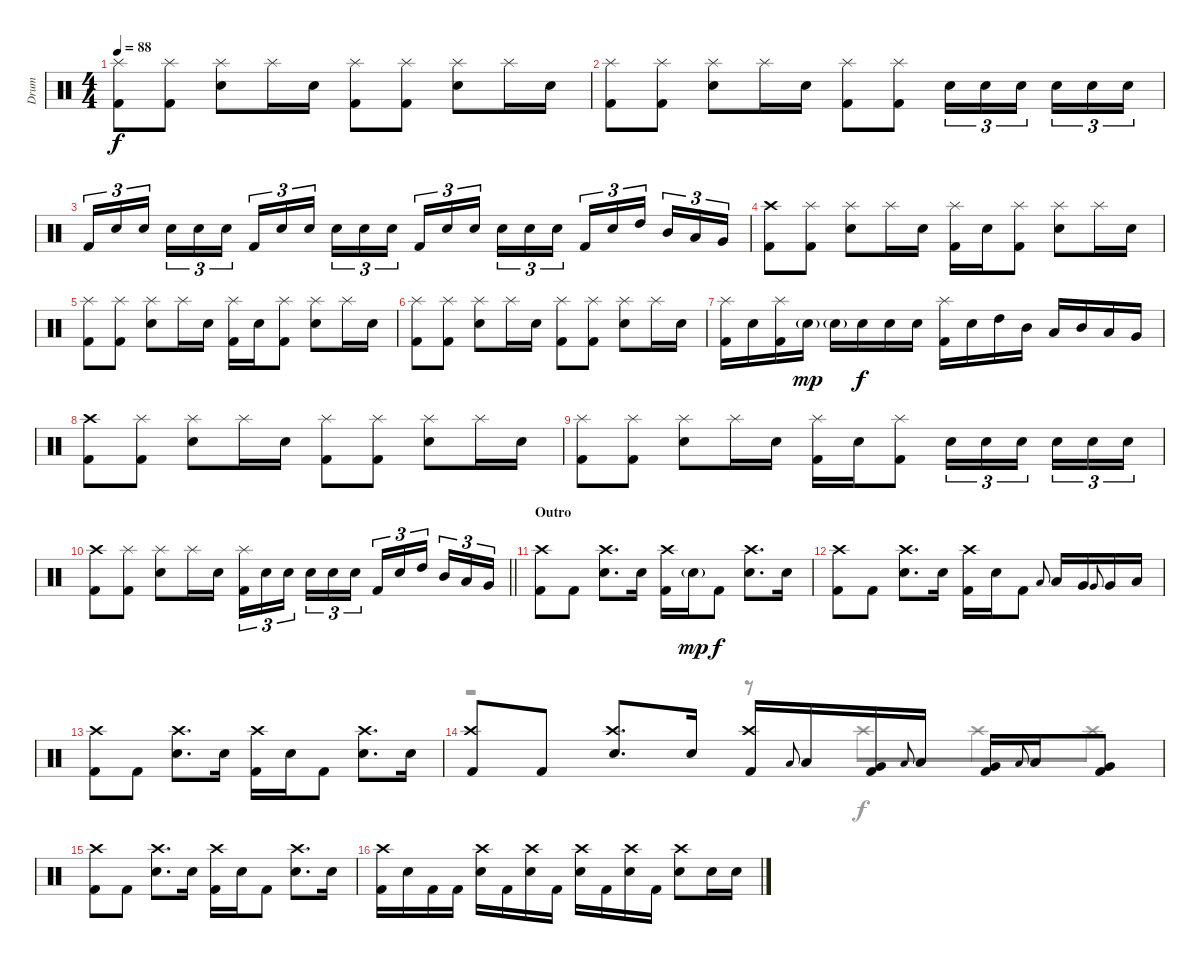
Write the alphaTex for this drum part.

\track ("Drum" "Drum") {instrument percussion}
\staff {score}
\articulation defaults
\voice
\ts (4 4)
\tempo 88
\clef neutral
\ks c
("Splash (hit)" "Kick (hit) 2").8{dy f} ("Splash (hit)" "Kick (hit) 2").8 ("Splash (hit)" "Electric Snare (hit)").8 "Splash (hit)".16 "Electric Snare (hit)".16 ("Splash (hit)" "Kick (hit) 2").8 ("Splash (hit)" "Kick (hit) 2").8 ("Splash (hit)" "Electric Snare (hit)").8 "Splash (hit)".16 "Electric Snare (hit)".16 |
("Splash (hit)" "Kick (hit) 2").8 ("Splash (hit)" "Kick (hit) 2").8 ("Splash (hit)" "Electric Snare (hit)").8 "Splash (hit)".16 "Electric Snare (hit)".16 ("Splash (hit)" "Kick (hit) 2").8 ("Splash (hit)" "Kick (hit) 2").8 "Electric Snare (hit)".16{tu (3 2)} "Electric Snare (hit)".16{tu (3 2)} "Electric Snare (hit)".16{tu (3 2) beam splitsecondary} "Electric Snare (hit)".16{tu (3 2)} "Electric Snare (hit)".16{tu (3 2)} "Electric Snare (hit)".16{tu (3 2)} |
"Kick (hit) 2".16{tu (3 2)} "Electric Snare (hit)".16{tu (3 2)} "Electric Snare (hit)".16{tu (3 2) beam splitsecondary} "Electric Snare (hit)".16{tu (3 2)} "Electric Snare (hit)".16{tu (3 2)} "Electric Snare (hit)".16{tu (3 2)} "Kick (hit) 2".16{tu (3 2)} "Electric Snare (hit)".16{tu (3 2)} "Electric Snare (hit)".16{tu (3 2) beam splitsecondary} "Electric Snare (hit)".16{tu (3 2)} "Electric Snare (hit)".16{tu (3 2)} "Electric Snare (hit)".16{tu (3 2)} "Kick (hit) 2".16{tu (3 2)} "Electric Snare (hit)".16{tu (3 2)} "Electric Snare (hit)".16{tu (3 2) beam splitsecondary} "Electric Snare (hit)".16{tu (3 2)} "Electric Snare (hit)".16{tu (3 2)} "Electric Snare (hit)".16{tu (3 2)} "Kick (hit) 2".16{tu (3 2)} "Electric Snare (hit)".16{tu (3 2)} "High Tom (hit)".16{tu (3 2) beam splitsecondary} "Mid Tom (hit)".16{tu (3 2)} "Low Tom (hit)".16{tu (3 2)} "Very Low Tom (hit)".16{tu (3 2)} |
("Crash high (hit)" "Kick (hit) 2").8 ("Splash (hit)" "Kick (hit) 2").8 ("Splash (hit)" "Electric Snare (hit)").8 "Splash (hit)".16 "Electric Snare (hit)".16 ("Splash (hit)" "Kick (hit) 2").16 "Electric Snare (hit)".16 ("Splash (hit)" "Kick (hit) 2").8 ("Splash (hit)" "Electric Snare (hit)").8 "Splash (hit)".16 "Electric Snare (hit)".16 |
("Splash (hit)" "Kick (hit) 2").8 ("Splash (hit)" "Kick (hit) 2").8 ("Splash (hit)" "Electric Snare (hit)").8 "Splash (hit)".16 "Electric Snare (hit)".16 ("Splash (hit)" "Kick (hit) 2").16 "Electric Snare (hit)".16 ("Splash (hit)" "Kick (hit) 2").8 ("Splash (hit)" "Electric Snare (hit)").8 "Splash (hit)".16 "Electric Snare (hit)".16 |
("Splash (hit)" "Kick (hit) 2").8 ("Splash (hit)" "Kick (hit) 2").8 ("Splash (hit)" "Electric Snare (hit)").8 "Splash (hit)".16 "Electric Snare (hit)".16 ("Splash (hit)" "Kick (hit) 2").8 ("Splash (hit)" "Kick (hit) 2").8 ("Splash (hit)" "Electric Snare (hit)").8 "Splash (hit)".16 "Electric Snare (hit)".16 |
("Splash (hit)" "Kick (hit) 2").16 "Electric Snare (hit)".16 ("Splash (hit)" "Kick (hit) 2").16 "Electric Snare (hit)"{g}.16{dy mp} "Electric Snare (hit)"{g}.16 "Electric Snare (hit)".16{dy f} "Electric Snare (hit)".16 "Electric Snare (hit)".16 ("Splash (hit)" "Kick (hit) 2").16 "Electric Snare (hit)".16 "High Tom (hit)".16 "Mid Tom (hit)".16 "Low Tom (hit)".16 "Mid Tom (hit)".16 "Low Tom (hit)".16 "Very Low Tom (hit)".16 |
("Crash high (hit)" "Kick (hit) 2").8 ("Splash (hit)" "Kick (hit) 2").8 ("Splash (hit)" "Electric Snare (hit)").8 "Splash (hit)".16 "Electric Snare (hit)".16 ("Splash (hit)" "Kick (hit) 2").8 ("Splash (hit)" "Kick (hit) 2").8 ("Splash (hit)" "Electric Snare (hit)").8 "Splash (hit)".16 "Electric Snare (hit)".16 |
("Splash (hit)" "Kick (hit) 2").8 ("Splash (hit)" "Kick (hit) 2").8 ("Splash (hit)" "Electric Snare (hit)").8 "Splash (hit)".16 "Electric Snare (hit)".16 ("Splash (hit)" "Kick (hit) 2").16 "Electric Snare (hit)".16 ("Splash (hit)" "Kick (hit) 2").8 "Electric Snare (hit)".16{tu (3 2)} "Electric Snare (hit)".16{tu (3 2)} "Electric Snare (hit)".16{tu (3 2) beam splitsecondary} "Electric Snare (hit)".16{tu (3 2)} "Electric Snare (hit)".16{tu (3 2)} "Electric Snare (hit)".16{tu (3 2)} |
\barLineRight lightlight
("Crash high (hit)" "Kick (hit) 2").8 ("Splash (hit)" "Kick (hit) 2").8 ("Splash (hit)" "Electric Snare (hit)").8 "Splash (hit)".16 "Electric Snare (hit)".16 ("Splash (hit)" "Kick (hit) 2").16{tu (3 2)} "Electric Snare (hit)".16{tu (3 2)} "Electric Snare (hit)".16{tu (3 2) beam splitsecondary} "Electric Snare (hit)".16{tu (3 2)} "Electric Snare (hit)".16{tu (3 2)} "Electric Snare (hit)".16{tu (3 2)} "Kick (hit) 2".16{tu (3 2)} "Electric Snare (hit)".16{tu (3 2)} "High Tom (hit)".16{tu (3 2) beam splitsecondary} "Mid Tom (hit)".16{tu (3 2)} "Low Tom (hit)".16{tu (3 2)} "Very Low Tom (hit)".16{tu (3 2)} |
\section ("" "Outro")
("Crash high (hit)" "Kick (hit) 2").8 "Kick (hit) 2".8 ("Crash high (hit)" "Electric Snare (hit)").8{d} "Electric Snare (hit)".16 ("Crash high (hit)" "Kick (hit) 2").16 "Electric Snare (hit)"{g}.16{dy mp} "Kick (hit) 2".8{dy f} ("Crash high (hit)" "Electric Snare (hit)").8{d} "Electric Snare (hit)".16 |
("Crash high (hit)" "Kick (hit) 2").8 "Kick (hit) 2".8 ("Crash high (hit)" "Electric Snare (hit)").8{d} "Electric Snare (hit)".16 ("Crash high (hit)" "Kick (hit) 2").16 "Electric Snare (hit)".16 "Kick (hit) 2".8 "Low Tom (hit)".8{gr onbeat} "Low Tom (hit)".16 "Very Low Tom (hit)".16 "Very Low Tom (hit)".8{gr onbeat} "Very Low Tom (hit)".16 "Low Floor Tom (hit)".16 |
("Crash high (hit)" "Kick (hit) 2").8 "Kick (hit) 2".8 ("Crash high (hit)" "Electric Snare (hit)").8{d} "Electric Snare (hit)".16 ("Crash high (hit)" "Kick (hit) 2").16 "Electric Snare (hit)".16 "Kick (hit) 2".8 ("Crash high (hit)" "Electric Snare (hit)").8{d} "Electric Snare (hit)".16 |
("Crash high (hit)" "Kick (hit) 2").8 "Kick (hit) 2".8 ("Crash high (hit)" "Electric Snare (hit)").8{d} "Electric Snare (hit)".16 ("Crash high (hit)" "Kick (hit) 2").16 "Low Tom (hit)".8{gr onbeat} "Low Tom (hit)".16 ("Very Low Tom (hit)" "Kick (hit) 2").16 "Low Tom (hit)".8{gr onbeat} "Low Tom (hit)".16 ("Very Low Tom (hit)" "Kick (hit) 2").16 "Low Tom (hit)".8{gr onbeat} "Low Tom (hit)".16 ("Very Low Tom (hit)" "Kick (hit) 2").8 |
("Crash high (hit)" "Kick (hit) 2").8 "Kick (hit) 2".8 ("Crash high (hit)" "Electric Snare (hit)").8{d} "Electric Snare (hit)".16 ("Crash high (hit)" "Kick (hit) 2").16 "Electric Snare (hit)".16 "Kick (hit) 2".8 ("Crash high (hit)" "Electric Snare (hit)").8{d} "Electric Snare (hit)".16 |
("Crash high (hit)" "Kick (hit) 2").16 "Electric Snare (hit)".16 "Kick (hit) 2".16 "Kick (hit) 2".16 ("Crash high (hit)" "Electric Snare (hit)").16 "Kick (hit) 2".16 ("Crash high (hit)" "Electric Snare (hit)").16 "Kick (hit) 2".16 ("Crash high (hit)" "Electric Snare (hit)").16 "Kick (hit) 2".16 ("Crash high (hit)" "Electric Snare (hit)").16 "Kick (hit) 2".16 ("Crash high (hit)" "Electric Snare (hit)").8 "Electric Snare (hit)".16 "Electric Snare (hit)".16
\voice
\clef neutral
\ottava regular
\simile none
\ks c
|
|
|
|
|
|
|
|
|
\barLineRight lightlight
|
|
|
|
r.2 r.8 "Crash high (hit)".8{beam merge} "Crash high (hit)".8 "Crash high (hit)".8 |
|
